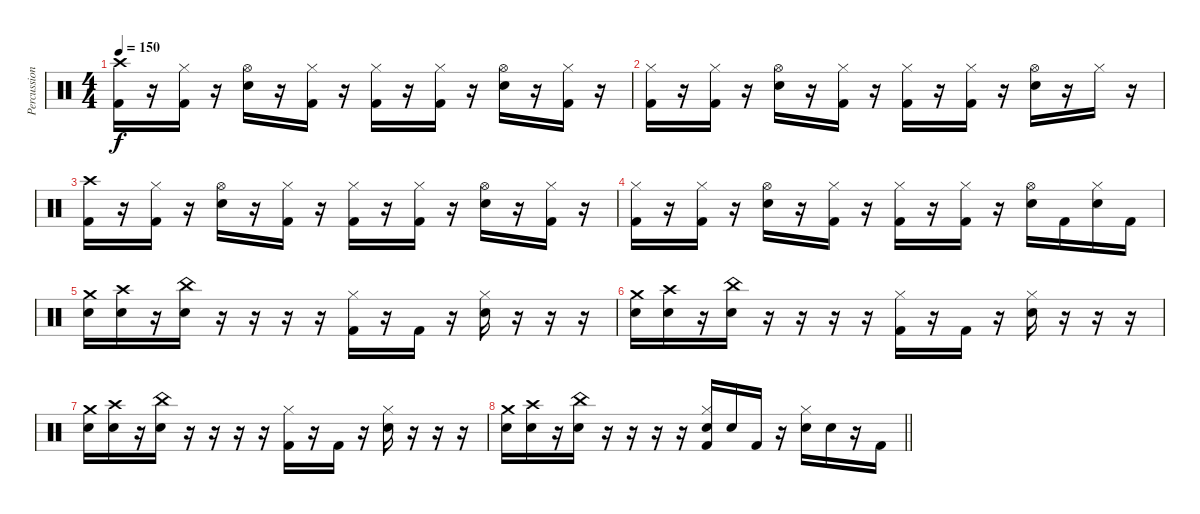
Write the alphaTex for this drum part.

\track ("Percussion" "Percussion") {instrument percussion}
\staff {score}
\articulation defaults
\ts (4 4)
\tempo 150
\clef neutral
\ks c
("Crash high (hit)" "Kick (hit) 2").16{dy f} r.16 ("Hi-Hat (closed)" "Kick (hit) 2").16 r.16 ("Hi-Hat (open)" "Snare (hit) 2").16 r.16 ("Hi-Hat (closed)" "Kick (hit) 2").16 r.16 ("Hi-Hat (closed)" "Kick (hit) 2").16 r.16 ("Hi-Hat (closed)" "Kick (hit) 2").16 r.16 ("Hi-Hat (open)" "Snare (hit) 2").16 r.16 ("Hi-Hat (closed)" "Kick (hit) 2").16 r.16 |
("Hi-Hat (closed)" "Kick (hit) 2").16 r.16 ("Hi-Hat (closed)" "Kick (hit) 2").16 r.16 ("Hi-Hat (open)" "Snare (hit) 2").16 r.16 ("Hi-Hat (closed)" "Kick (hit) 2").16 r.16 ("Hi-Hat (closed)" "Kick (hit) 2").16 r.16 ("Hi-Hat (closed)" "Kick (hit) 2").16 r.16 ("Hi-Hat (open)" "Snare (hit) 2").16 r.16 "Hi-Hat (closed)".16 r.16 |
("Crash high (hit)" "Kick (hit) 2").16 r.16 ("Hi-Hat (closed)" "Kick (hit) 2").16 r.16 ("Hi-Hat (open)" "Snare (hit) 2").16 r.16 ("Hi-Hat (closed)" "Kick (hit) 2").16 r.16 ("Hi-Hat (closed)" "Kick (hit) 2").16 r.16 ("Hi-Hat (closed)" "Kick (hit) 2").16 r.16 ("Hi-Hat (open)" "Snare (hit) 2").16 r.16 ("Hi-Hat (closed)" "Kick (hit) 2").16 r.16 |
("Hi-Hat (closed)" "Kick (hit) 2").16 r.16 ("Hi-Hat (closed)" "Kick (hit) 2").16 r.16 ("Hi-Hat (open)" "Snare (hit) 2").16 r.16 ("Hi-Hat (closed)" "Kick (hit) 2").16 r.16 ("Hi-Hat (closed)" "Kick (hit) 2").16 r.16 ("Hi-Hat (closed)" "Kick (hit) 2").16 r.16 ("Hi-Hat (open)" "Snare (hit) 2").16 "Kick (hit) 2".16 ("Hi-Hat (closed)" "Snare (hit) 2").16 "Kick (hit) 2".16 |
("Crash medium (hit)" "Snare (hit) 2").16 ("Crash high (hit)" "Snare (hit) 2").16 r.16 ("China (hit)" "Snare (hit) 2").16 r.16 r.16 r.16 r.16 ("Hi-Hat (closed)" "Kick (hit) 2").16 r.16 "Kick (hit) 2".16 r.16 ("Hi-Hat (closed)" "Snare (hit) 2").16 r.16 r.16 r.16 |
("Crash medium (hit)" "Snare (hit) 2").16 ("Crash high (hit)" "Snare (hit) 2").16 r.16 ("China (hit)" "Snare (hit) 2").16 r.16 r.16 r.16 r.16 ("Hi-Hat (closed)" "Kick (hit) 2").16 r.16 "Kick (hit) 2".16 r.16 ("Hi-Hat (closed)" "Snare (hit) 2").16 r.16 r.16 r.16 |
("Crash medium (hit)" "Snare (hit) 2").16 ("Crash high (hit)" "Snare (hit) 2").16 r.16 ("China (hit)" "Snare (hit) 2").16 r.16 r.16 r.16 r.16 ("Hi-Hat (closed)" "Kick (hit) 2").16 r.16 "Kick (hit) 2".16 r.16 ("Hi-Hat (closed)" "Snare (hit) 2").16 r.16 r.16 r.16 |
\barLineRight lightlight
("Crash medium (hit)" "Snare (hit) 2").16 ("Crash high (hit)" "Snare (hit) 2").16 r.16 ("China (hit)" "Snare (hit) 2").16 r.16 r.16 r.16 r.16 ("Hi-Hat (closed)" "Snare (hit) 2" "Kick (hit) 2").16 "Snare (hit) 2".16 "Kick (hit) 2".16 r.16 ("Hi-Hat (closed)" "Snare (hit) 2").16 "Snare (hit) 2".16 r.16 "Kick (hit) 2".16
